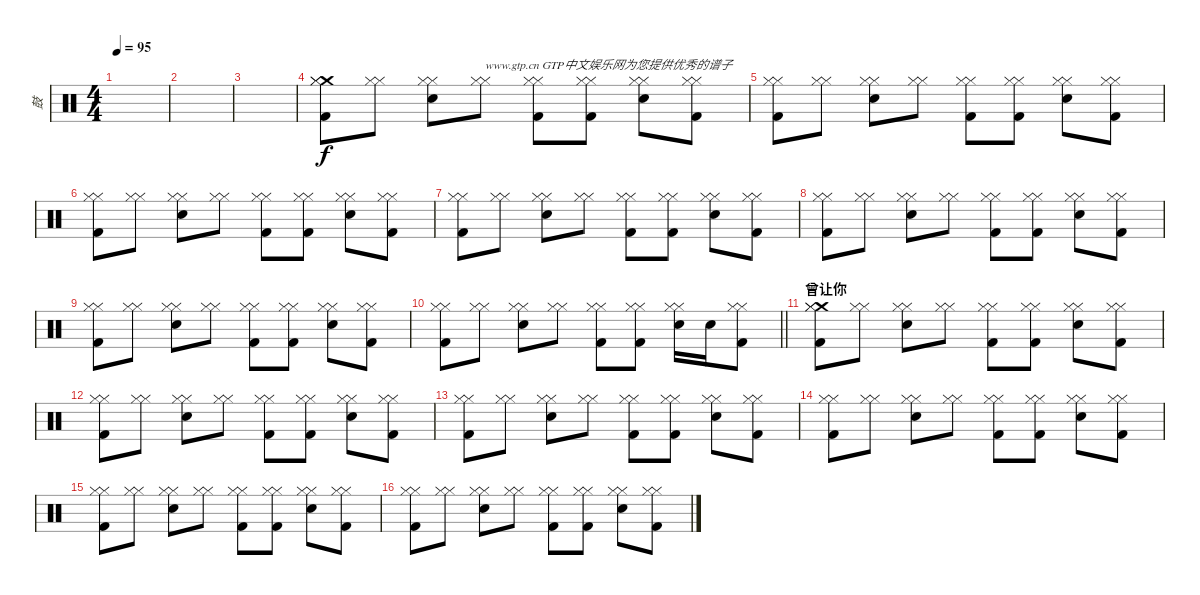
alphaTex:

\track ("鼓" "鼓") {instrument percussion}
\staff {score}
\articulation defaults
\ts (4 4)
\tempo 95
\clef neutral
\ks c
|
|
|
("Crash medium (hit)" "Hi-Hat (closed)" "Hi-Hat (closed)" "Kick (hit) 2").8 ("Hi-Hat (closed)" "Hi-Hat (closed)").8 ("Hi-Hat (closed)" "Hi-Hat (closed)" "Metronome (bell)").8 ("Hi-Hat (closed)" "Hi-Hat (closed)").8{txt "www.gtp.cn GTP中文娱乐网为您提供优秀的谱子"} ("Hi-Hat (closed)" "Hi-Hat (closed)" "Kick (hit) 2").8 ("Hi-Hat (closed)" "Hi-Hat (closed)" "Kick (hit) 2").8 ("Hi-Hat (closed)" "Hi-Hat (closed)" "Metronome (bell)").8 ("Hi-Hat (closed)" "Hi-Hat (closed)" "Kick (hit) 2").8 |
("Hi-Hat (closed)" "Hi-Hat (closed)" "Kick (hit) 2").8 ("Hi-Hat (closed)" "Hi-Hat (closed)").8 ("Hi-Hat (closed)" "Hi-Hat (closed)" "Metronome (bell)").8 ("Hi-Hat (closed)" "Hi-Hat (closed)").8 ("Hi-Hat (closed)" "Hi-Hat (closed)" "Kick (hit) 2").8 ("Hi-Hat (closed)" "Hi-Hat (closed)" "Kick (hit) 2").8 ("Hi-Hat (closed)" "Hi-Hat (closed)" "Metronome (bell)").8 ("Hi-Hat (closed)" "Hi-Hat (closed)" "Kick (hit) 2").8 |
("Hi-Hat (closed)" "Hi-Hat (closed)" "Kick (hit) 2").8 ("Hi-Hat (closed)" "Hi-Hat (closed)").8 ("Hi-Hat (closed)" "Hi-Hat (closed)" "Metronome (bell)").8 ("Hi-Hat (closed)" "Hi-Hat (closed)").8 ("Hi-Hat (closed)" "Hi-Hat (closed)" "Kick (hit) 2").8 ("Hi-Hat (closed)" "Hi-Hat (closed)" "Kick (hit) 2").8 ("Hi-Hat (closed)" "Hi-Hat (closed)" "Metronome (bell)").8 ("Hi-Hat (closed)" "Hi-Hat (closed)" "Kick (hit) 2").8 |
("Hi-Hat (closed)" "Hi-Hat (closed)" "Kick (hit) 2").8 ("Hi-Hat (closed)" "Hi-Hat (closed)").8 ("Hi-Hat (closed)" "Hi-Hat (closed)" "Metronome (bell)").8 ("Hi-Hat (closed)" "Hi-Hat (closed)").8 ("Hi-Hat (closed)" "Hi-Hat (closed)" "Kick (hit) 2").8 ("Hi-Hat (closed)" "Hi-Hat (closed)" "Kick (hit) 2").8 ("Hi-Hat (closed)" "Hi-Hat (closed)" "Metronome (bell)").8 ("Hi-Hat (closed)" "Hi-Hat (closed)" "Kick (hit) 2").8 |
("Hi-Hat (closed)" "Hi-Hat (closed)" "Kick (hit) 2").8 ("Hi-Hat (closed)" "Hi-Hat (closed)").8 ("Hi-Hat (closed)" "Hi-Hat (closed)" "Metronome (bell)").8 ("Hi-Hat (closed)" "Hi-Hat (closed)").8 ("Hi-Hat (closed)" "Hi-Hat (closed)" "Kick (hit) 2").8 ("Hi-Hat (closed)" "Hi-Hat (closed)" "Kick (hit) 2").8 ("Hi-Hat (closed)" "Hi-Hat (closed)" "Metronome (bell)").8 ("Hi-Hat (closed)" "Hi-Hat (closed)" "Kick (hit) 2").8 |
("Hi-Hat (closed)" "Hi-Hat (closed)" "Kick (hit) 2").8 ("Hi-Hat (closed)" "Hi-Hat (closed)").8 ("Hi-Hat (closed)" "Hi-Hat (closed)" "Metronome (bell)").8 ("Hi-Hat (closed)" "Hi-Hat (closed)").8 ("Hi-Hat (closed)" "Hi-Hat (closed)" "Kick (hit) 2").8 ("Hi-Hat (closed)" "Hi-Hat (closed)" "Kick (hit) 2").8 ("Hi-Hat (closed)" "Hi-Hat (closed)" "Metronome (bell)").8 ("Hi-Hat (closed)" "Hi-Hat (closed)" "Kick (hit) 2").8 |
\barLineRight lightlight
("Hi-Hat (closed)" "Hi-Hat (closed)" "Kick (hit) 2").8 ("Hi-Hat (closed)" "Hi-Hat (closed)").8 ("Hi-Hat (closed)" "Hi-Hat (closed)" "Metronome (bell)").8 ("Hi-Hat (closed)" "Hi-Hat (closed)").8 ("Hi-Hat (closed)" "Hi-Hat (closed)" "Kick (hit) 2").8 ("Hi-Hat (closed)" "Hi-Hat (closed)" "Kick (hit) 2").8 ("Hi-Hat (closed)" "Hi-Hat (closed)" "Metronome (bell)").16 "Metronome (bell)".16 ("Hi-Hat (closed)" "Hi-Hat (closed)" "Kick (hit) 2").8 |
\section ("" "曾让你")
("Crash medium (hit)" "Hi-Hat (closed)" "Hi-Hat (closed)" "Kick (hit) 2").8 ("Hi-Hat (closed)" "Hi-Hat (closed)").8 ("Hi-Hat (closed)" "Hi-Hat (closed)" "Metronome (bell)").8 ("Hi-Hat (closed)" "Hi-Hat (closed)").8 ("Hi-Hat (closed)" "Hi-Hat (closed)" "Kick (hit) 2").8 ("Hi-Hat (closed)" "Hi-Hat (closed)" "Kick (hit) 2").8 ("Hi-Hat (closed)" "Hi-Hat (closed)" "Metronome (bell)").8 ("Hi-Hat (closed)" "Hi-Hat (closed)" "Kick (hit) 2").8 |
("Hi-Hat (closed)" "Hi-Hat (closed)" "Kick (hit) 2").8 ("Hi-Hat (closed)" "Hi-Hat (closed)").8 ("Hi-Hat (closed)" "Hi-Hat (closed)" "Metronome (bell)").8 ("Hi-Hat (closed)" "Hi-Hat (closed)").8 ("Hi-Hat (closed)" "Hi-Hat (closed)" "Kick (hit) 2").8 ("Hi-Hat (closed)" "Hi-Hat (closed)" "Kick (hit) 2").8 ("Hi-Hat (closed)" "Hi-Hat (closed)" "Metronome (bell)").8 ("Hi-Hat (closed)" "Hi-Hat (closed)" "Kick (hit) 2").8 |
("Hi-Hat (closed)" "Hi-Hat (closed)" "Kick (hit) 2").8 ("Hi-Hat (closed)" "Hi-Hat (closed)").8 ("Hi-Hat (closed)" "Hi-Hat (closed)" "Metronome (bell)").8 ("Hi-Hat (closed)" "Hi-Hat (closed)").8 ("Hi-Hat (closed)" "Hi-Hat (closed)" "Kick (hit) 2").8 ("Hi-Hat (closed)" "Hi-Hat (closed)" "Kick (hit) 2").8 ("Hi-Hat (closed)" "Hi-Hat (closed)" "Metronome (bell)").8 ("Hi-Hat (closed)" "Hi-Hat (closed)" "Kick (hit) 2").8 |
("Hi-Hat (closed)" "Hi-Hat (closed)" "Kick (hit) 2").8 ("Hi-Hat (closed)" "Hi-Hat (closed)").8 ("Hi-Hat (closed)" "Hi-Hat (closed)" "Metronome (bell)").8 ("Hi-Hat (closed)" "Hi-Hat (closed)").8 ("Hi-Hat (closed)" "Hi-Hat (closed)" "Kick (hit) 2").8 ("Hi-Hat (closed)" "Hi-Hat (closed)" "Kick (hit) 2").8 ("Hi-Hat (closed)" "Hi-Hat (closed)" "Metronome (bell)").8 ("Hi-Hat (closed)" "Hi-Hat (closed)" "Kick (hit) 2").8 |
("Hi-Hat (closed)" "Hi-Hat (closed)" "Kick (hit) 2").8 ("Hi-Hat (closed)" "Hi-Hat (closed)").8 ("Hi-Hat (closed)" "Hi-Hat (closed)" "Metronome (bell)").8 ("Hi-Hat (closed)" "Hi-Hat (closed)").8 ("Hi-Hat (closed)" "Hi-Hat (closed)" "Kick (hit) 2").8 ("Hi-Hat (closed)" "Hi-Hat (closed)" "Kick (hit) 2").8 ("Hi-Hat (closed)" "Hi-Hat (closed)" "Metronome (bell)").8 ("Hi-Hat (closed)" "Hi-Hat (closed)" "Kick (hit) 2").8 |
("Hi-Hat (closed)" "Hi-Hat (closed)" "Kick (hit) 2").8 ("Hi-Hat (closed)" "Hi-Hat (closed)").8 ("Hi-Hat (closed)" "Hi-Hat (closed)" "Metronome (bell)").8 ("Hi-Hat (closed)" "Hi-Hat (closed)").8 ("Hi-Hat (closed)" "Hi-Hat (closed)" "Kick (hit) 2").8 ("Hi-Hat (closed)" "Hi-Hat (closed)" "Kick (hit) 2").8 ("Hi-Hat (closed)" "Hi-Hat (closed)" "Metronome (bell)").8 ("Hi-Hat (closed)" "Hi-Hat (closed)" "Kick (hit) 2").8
